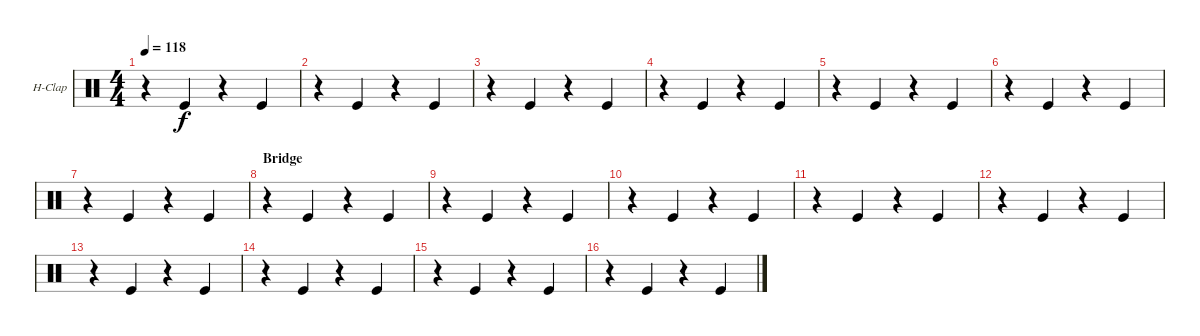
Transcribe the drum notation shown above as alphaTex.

\bracketExtendMode groupsimilarinstruments
\firstSystemTrackNameOrientation horizontal
\otherSystemsTrackNameOrientation horizontal
\track ("Hand Clap" "H-Clap") {instrument percussion}
\staff {score}
\articulation defaults
\ts (4 4)
\tempo 118
\clef neutral
\ks c
r.4{dy f} "Kick (hit)".4 r.4 "Kick (hit)".4 |
r.4 "Kick (hit)".4 r.4 "Kick (hit)".4 |
r.4 "Kick (hit)".4 r.4 "Kick (hit)".4 |
r.4 "Kick (hit)".4 r.4 "Kick (hit)".4 |
r.4 "Kick (hit)".4 r.4 "Kick (hit)".4 |
r.4 "Kick (hit)".4 r.4 "Kick (hit)".4 |
r.4 "Kick (hit)".4 r.4 "Kick (hit)".4 |
\section ("" "Bridge")
r.4 "Kick (hit)".4 r.4 "Kick (hit)".4 |
r.4 "Kick (hit)".4 r.4 "Kick (hit)".4 |
r.4 "Kick (hit)".4 r.4 "Kick (hit)".4 |
r.4 "Kick (hit)".4 r.4 "Kick (hit)".4 |
r.4 "Kick (hit)".4 r.4 "Kick (hit)".4 |
r.4 "Kick (hit)".4 r.4 "Kick (hit)".4 |
r.4 "Kick (hit)".4 r.4 "Kick (hit)".4 |
r.4 "Kick (hit)".4 r.4 "Kick (hit)".4 |
r.4 "Kick (hit)".4 r.4 "Kick (hit)".4
